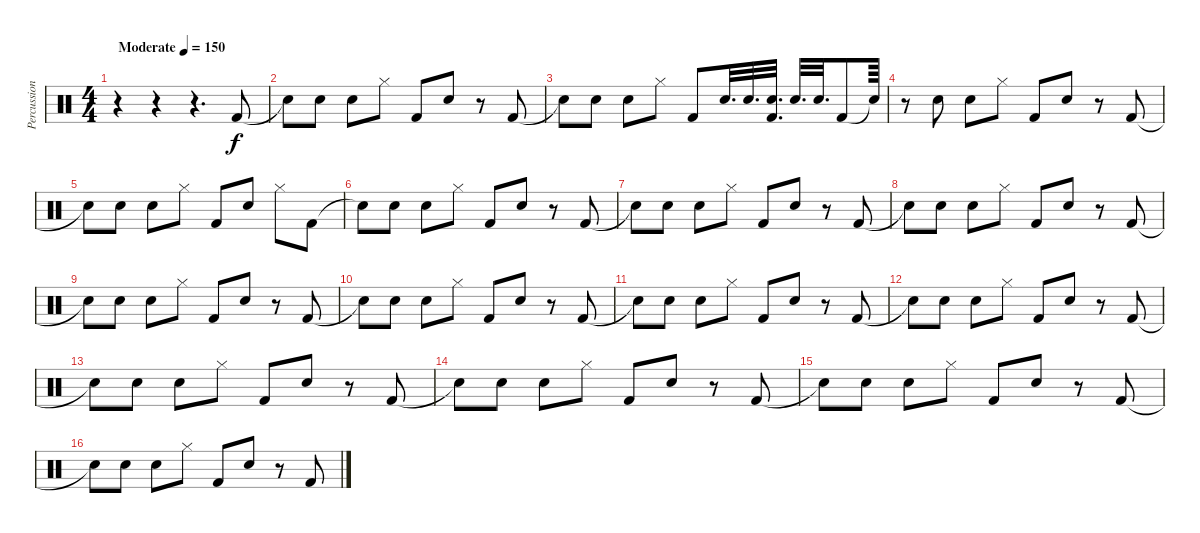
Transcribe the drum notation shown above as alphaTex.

\track ("Percussion" "Percussion") {instrument percussion}
\staff {score}
\articulation defaults
\ts (4 4)
\tempo (150 "Moderate")
\clef neutral
\ks c
r.4{dy f} r.4 r.4{d} "Kick (hit) 2".8 |
"Snare (hit)"{t}.8 "Electric Snare (hit)".8 "Electric Snare (hit)".8 "Hi-Hat (closed)".8 "Kick (hit) 2".8 "Electric Snare (hit)".8 r.8 "Kick (hit) 2".8 |
"Snare (hit)"{t}.8 "Electric Snare (hit)".8 "Electric Snare (hit)".8 "Hi-Hat (closed)".8 "Kick (hit) 2".8 "Snare (hit) 2".32{d} "Snare (hit) 2".32{d} ("Kick (hit) 2" "Snare (hit) 2").32{d} "Snare (hit) 2".32{d} "Snare (hit) 2".32{d} "Kick (hit) 2".8 "Snare (hit)"{t}.64 |
r.8 "Electric Snare (hit)".8 "Electric Snare (hit)".8 "Hi-Hat (closed)".8 "Kick (hit) 2".8 "Electric Snare (hit)".8 r.8 "Kick (hit) 2".8 |
"Snare (hit)"{t}.8 "Electric Snare (hit)".8 "Electric Snare (hit)".8 "Hi-Hat (closed)".8 "Kick (hit) 2".8 "Electric Snare (hit)".8 "Hi-Hat (closed)".8 "Kick (hit) 2".8 |
"Snare (hit)"{t}.8 "Electric Snare (hit)".8 "Electric Snare (hit)".8 "Hi-Hat (closed)".8 "Kick (hit) 2".8 "Electric Snare (hit)".8 r.8 "Kick (hit) 2".8 |
"Snare (hit)"{t}.8 "Electric Snare (hit)".8 "Electric Snare (hit)".8 "Hi-Hat (closed)".8 "Kick (hit) 2".8 "Electric Snare (hit)".8 r.8 "Kick (hit) 2".8 |
"Snare (hit)"{t}.8 "Electric Snare (hit)".8 "Electric Snare (hit)".8 "Hi-Hat (closed)".8 "Kick (hit) 2".8 "Electric Snare (hit)".8 r.8 "Kick (hit) 2".8 |
"Snare (hit)"{t}.8 "Electric Snare (hit)".8 "Electric Snare (hit)".8 "Hi-Hat (closed)".8 "Kick (hit) 2".8 "Electric Snare (hit)".8 r.8 "Kick (hit) 2".8 |
"Snare (hit)"{t}.8 "Electric Snare (hit)".8 "Electric Snare (hit)".8 "Hi-Hat (closed)".8 "Kick (hit) 2".8 "Electric Snare (hit)".8 r.8 "Kick (hit) 2".8 |
"Snare (hit)"{t}.8 "Electric Snare (hit)".8 "Electric Snare (hit)".8 "Hi-Hat (closed)".8 "Kick (hit) 2".8 "Electric Snare (hit)".8 r.8 "Kick (hit) 2".8 |
"Snare (hit)"{t}.8 "Electric Snare (hit)".8 "Electric Snare (hit)".8 "Hi-Hat (closed)".8 "Kick (hit) 2".8 "Electric Snare (hit)".8 r.8 "Kick (hit) 2".8 |
"Snare (hit)"{t}.8 "Electric Snare (hit)".8 "Electric Snare (hit)".8 "Hi-Hat (closed)".8 "Kick (hit) 2".8 "Electric Snare (hit)".8 r.8 "Kick (hit) 2".8 |
"Snare (hit)"{t}.8 "Electric Snare (hit)".8 "Electric Snare (hit)".8 "Hi-Hat (closed)".8 "Kick (hit) 2".8 "Electric Snare (hit)".8 r.8 "Kick (hit) 2".8 |
"Snare (hit)"{t}.8 "Electric Snare (hit)".8 "Electric Snare (hit)".8 "Hi-Hat (closed)".8 "Kick (hit) 2".8 "Electric Snare (hit)".8 r.8 "Kick (hit) 2".8 |
"Snare (hit)"{t}.8 "Electric Snare (hit)".8 "Electric Snare (hit)".8 "Hi-Hat (closed)".8 "Kick (hit) 2".8 "Electric Snare (hit)".8 r.8 "Kick (hit) 2".8
